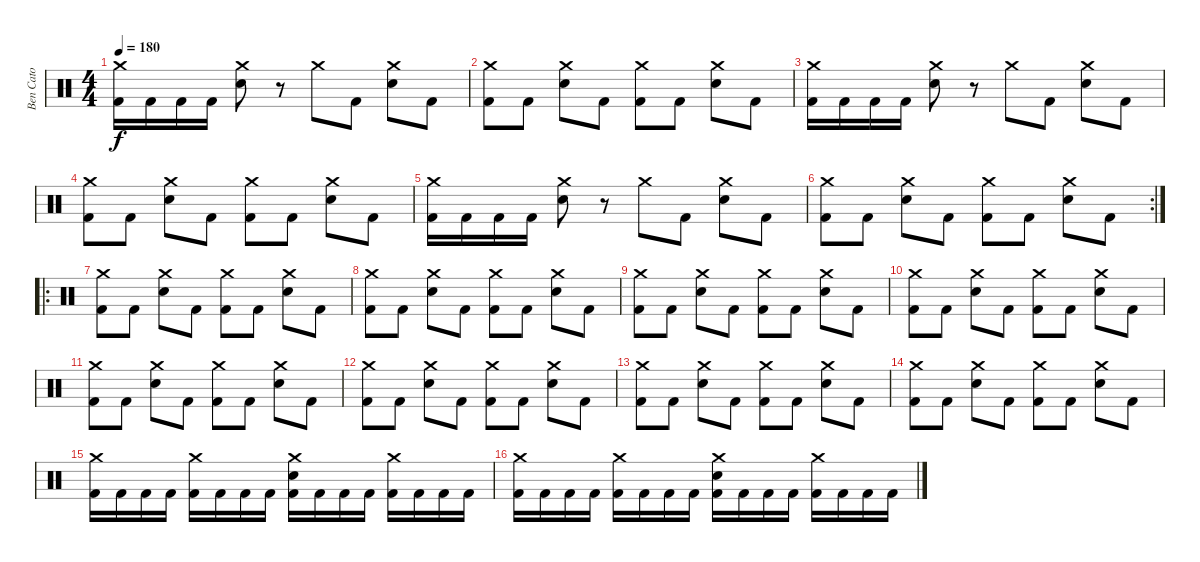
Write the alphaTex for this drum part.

\track ("Ben Cato" "Ben Cato") {instrument percussion}
\staff {score}
\articulation defaults
\ts (4 4)
\tempo 180
\clef neutral
\ks c
("Crash medium (hit)" "Kick (hit) 2").16{dy f} "Kick (hit) 2".16 "Kick (hit) 2".16 "Kick (hit) 2".16 ("Crash medium (hit)" "Electric Snare (hit)").8 r.8 "Crash medium (hit)".8 "Kick (hit) 2".8 ("Crash medium (hit)" "Electric Snare (hit)").8 "Kick (hit) 2".8 |
("Crash medium (hit)" "Kick (hit) 2").8 "Kick (hit) 2".8 ("Crash medium (hit)" "Electric Snare (hit)").8 "Kick (hit) 2".8 ("Crash medium (hit)" "Kick (hit) 2").8 "Kick (hit) 2".8 ("Crash medium (hit)" "Electric Snare (hit)").8 "Kick (hit) 2".8 |
("Crash medium (hit)" "Kick (hit) 2").16 "Kick (hit) 2".16 "Kick (hit) 2".16 "Kick (hit) 2".16 ("Crash medium (hit)" "Electric Snare (hit)").8 r.8 "Crash medium (hit)".8 "Kick (hit) 2".8 ("Crash medium (hit)" "Electric Snare (hit)").8 "Kick (hit) 2".8 |
("Crash medium (hit)" "Kick (hit) 2").8 "Kick (hit) 2".8 ("Crash medium (hit)" "Electric Snare (hit)").8 "Kick (hit) 2".8 ("Crash medium (hit)" "Kick (hit) 2").8 "Kick (hit) 2".8 ("Crash medium (hit)" "Electric Snare (hit)").8 "Kick (hit) 2".8 |
("Crash medium (hit)" "Kick (hit) 2").16 "Kick (hit) 2".16 "Kick (hit) 2".16 "Kick (hit) 2".16 ("Crash medium (hit)" "Electric Snare (hit)").8 r.8 "Crash medium (hit)".8 "Kick (hit) 2".8 ("Crash medium (hit)" "Electric Snare (hit)").8 "Kick (hit) 2".8 |
\rc 2
("Crash medium (hit)" "Kick (hit) 2").8 "Kick (hit) 2".8 ("Crash medium (hit)" "Electric Snare (hit)").8 "Kick (hit) 2".8 ("Crash medium (hit)" "Kick (hit) 2").8 "Kick (hit) 2".8 ("Crash medium (hit)" "Electric Snare (hit)").8 "Kick (hit) 2".8 |
\ro
("Crash medium (hit)" "Kick (hit) 2").8 "Kick (hit) 2".8 ("Crash medium (hit)" "Electric Snare (hit)").8 "Kick (hit) 2".8 ("Crash medium (hit)" "Kick (hit) 2").8 "Kick (hit) 2".8 ("Crash medium (hit)" "Electric Snare (hit)").8 "Kick (hit) 2".8 |
("Crash medium (hit)" "Kick (hit) 2").8 "Kick (hit) 2".8 ("Crash medium (hit)" "Electric Snare (hit)").8 "Kick (hit) 2".8 ("Crash medium (hit)" "Kick (hit) 2").8 "Kick (hit) 2".8 ("Crash medium (hit)" "Electric Snare (hit)").8 "Kick (hit) 2".8 |
("Crash medium (hit)" "Kick (hit) 2").8 "Kick (hit) 2".8 ("Crash medium (hit)" "Electric Snare (hit)").8 "Kick (hit) 2".8 ("Crash medium (hit)" "Kick (hit) 2").8 "Kick (hit) 2".8 ("Crash medium (hit)" "Electric Snare (hit)").8 "Kick (hit) 2".8 |
("Crash medium (hit)" "Kick (hit) 2").8 "Kick (hit) 2".8 ("Crash medium (hit)" "Electric Snare (hit)").8 "Kick (hit) 2".8 ("Crash medium (hit)" "Kick (hit) 2").8 "Kick (hit) 2".8 ("Crash medium (hit)" "Electric Snare (hit)").8 "Kick (hit) 2".8 |
("Crash medium (hit)" "Kick (hit) 2").8 "Kick (hit) 2".8 ("Crash medium (hit)" "Electric Snare (hit)").8 "Kick (hit) 2".8 ("Crash medium (hit)" "Kick (hit) 2").8 "Kick (hit) 2".8 ("Crash medium (hit)" "Electric Snare (hit)").8 "Kick (hit) 2".8 |
("Crash medium (hit)" "Kick (hit) 2").8 "Kick (hit) 2".8 ("Crash medium (hit)" "Electric Snare (hit)").8 "Kick (hit) 2".8 ("Crash medium (hit)" "Kick (hit) 2").8 "Kick (hit) 2".8 ("Crash medium (hit)" "Electric Snare (hit)").8 "Kick (hit) 2".8 |
("Crash medium (hit)" "Kick (hit) 2").8 "Kick (hit) 2".8 ("Crash medium (hit)" "Electric Snare (hit)").8 "Kick (hit) 2".8 ("Crash medium (hit)" "Kick (hit) 2").8 "Kick (hit) 2".8 ("Crash medium (hit)" "Electric Snare (hit)").8 "Kick (hit) 2".8 |
("Crash medium (hit)" "Kick (hit) 2").8 "Kick (hit) 2".8 ("Crash medium (hit)" "Electric Snare (hit)").8 "Kick (hit) 2".8 ("Crash medium (hit)" "Kick (hit) 2").8 "Kick (hit) 2".8 ("Crash medium (hit)" "Electric Snare (hit)").8 "Kick (hit) 2".8 |
("Crash medium (hit)" "Kick (hit) 2").16 "Kick (hit) 2".16 "Kick (hit) 2".16 "Kick (hit) 2".16 ("Crash medium (hit)" "Kick (hit) 2").16 "Kick (hit) 2".16 "Kick (hit) 2".16 "Kick (hit) 2".16 ("Crash medium (hit)" "Electric Snare (hit)" "Kick (hit) 2").16 "Kick (hit) 2".16 "Kick (hit) 2".16 "Kick (hit) 2".16 ("Crash medium (hit)" "Kick (hit) 2").16 "Kick (hit) 2".16 "Kick (hit) 2".16 "Kick (hit) 2".16 |
("Crash medium (hit)" "Kick (hit) 2").16 "Kick (hit) 2".16 "Kick (hit) 2".16 "Kick (hit) 2".16 ("Crash medium (hit)" "Kick (hit) 2").16 "Kick (hit) 2".16 "Kick (hit) 2".16 "Kick (hit) 2".16 ("Crash medium (hit)" "Electric Snare (hit)" "Kick (hit) 2").16 "Kick (hit) 2".16 "Kick (hit) 2".16 "Kick (hit) 2".16 ("Crash medium (hit)" "Kick (hit) 2").16 "Kick (hit) 2".16 "Kick (hit) 2".16 "Kick (hit) 2".16
